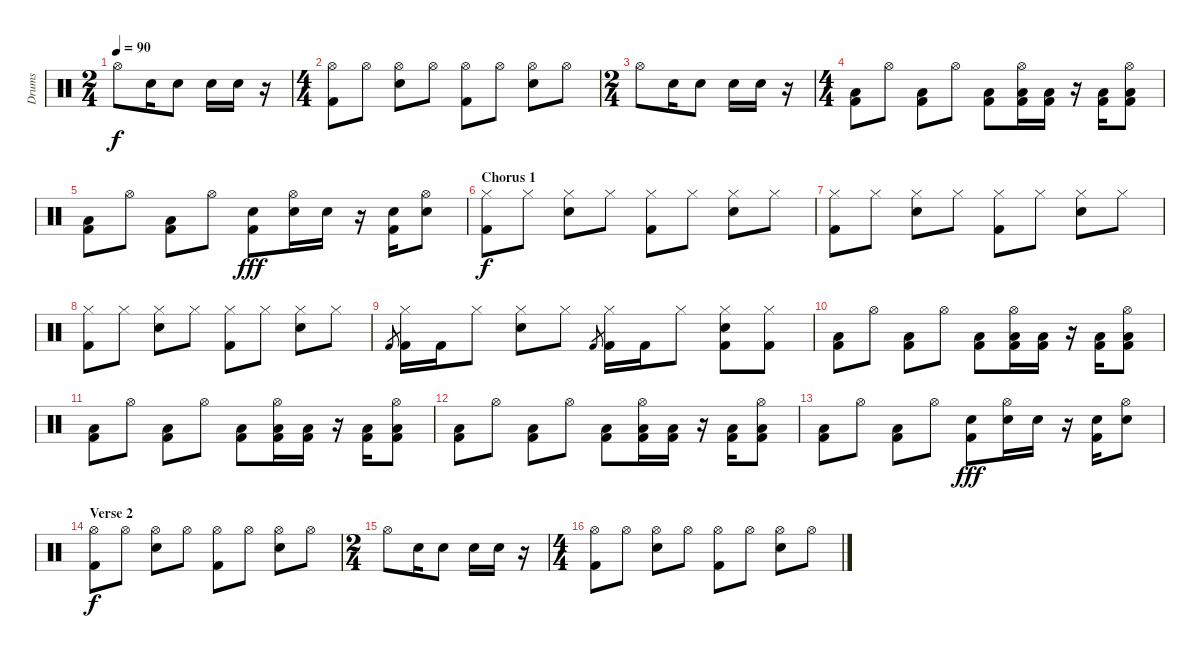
\track ("Drums" "Drums") {instrument percussion}
\staff {score}
\articulation defaults
\ts (2 4)
\tempo 90
\clef neutral
\ks c "Hi-Hat (open)".8{dy f} "Electric Snare (hit)".16 "Electric Snare (hit)".8 "Electric Snare (hit)".16 "Electric Snare (hit)".16
r.16 |
\ts (4 4)
("Hi-Hat (open)" "Kick (hit) 2").8 "Hi-Hat (open)".8 ("Hi-Hat (open)" "Electric Snare (hit)").8 "Hi-Hat (open)".8 ("Hi-Hat (open)" "Kick (hit) 2").8 "Hi-Hat (open)".8 ("Hi-Hat (open)" "Electric Snare (hit)").8 "Hi-Hat (open)".8 |
\ts (2 4)
"Hi-Hat (open)".8 "Electric Snare (hit)".16 "Electric Snare (hit)".8 "Electric Snare (hit)".16 "Electric Snare (hit)".16 r.16 |
\ts (4 4)
("Low Floor Tom (hit)" "Kick (hit) 2").8 "Hi-Hat (open)".8 ("Low Floor Tom (hit)" "Kick (hit) 2").8 "Hi-Hat (open)".8 ("Low Floor Tom (hit)" "Kick (hit) 2").8 ("Hi-Hat (open)" "Low Floor Tom (hit)" "Kick (hit) 2").16 ("Low Floor Tom (hit)" "Kick (hit) 2").16 r.16 ("Low Floor Tom (hit)" "Kick (hit) 2").16 ("Hi-Hat (open)" "Low Floor Tom (hit)" "Kick (hit) 2").8 |
("Low Floor Tom (hit)" "Kick (hit) 2").8 "Hi-Hat (open)".8 ("Low Floor Tom (hit)" "Kick (hit) 2").8 "Hi-Hat (open)".8 ("Electric Snare (hit)" "Kick (hit) 2").8{dy fff} ("Hi-Hat (open)" "Electric Snare (hit)").16 "Electric Snare (hit)".16 r.16 ("Electric Snare (hit)" "Kick (hit) 2").16 ("Hi-Hat (open)" "Electric Snare (hit)").8 |
\section ("" "Chorus 1")
("Hi-Hat (closed)" "Kick (hit) 2").8{dy f} "Hi-Hat (closed)".8 ("Hi-Hat (closed)" "Electric Snare (hit)").8 "Hi-Hat (closed)".8 ("Hi-Hat (closed)" "Kick (hit) 2").8 "Hi-Hat (closed)".8 ("Hi-Hat (closed)" "Electric Snare (hit)").8 "Hi-Hat (closed)".8 |
("Hi-Hat (closed)" "Kick (hit) 2").8 "Hi-Hat (closed)".8 ("Hi-Hat (closed)" "Electric Snare (hit)").8 "Hi-Hat (closed)".8 ("Hi-Hat (closed)" "Kick (hit) 2").8 "Hi-Hat (closed)".8 ("Hi-Hat (closed)" "Electric Snare (hit)").8 "Hi-Hat (closed)".8 |
("Hi-Hat (closed)" "Kick (hit) 2").8 "Hi-Hat (closed)".8 ("Hi-Hat (closed)" "Electric Snare (hit)").8 "Hi-Hat (closed)".8 ("Hi-Hat (closed)" "Kick (hit) 2").8 "Hi-Hat (closed)".8 ("Hi-Hat (closed)" "Electric Snare (hit)").8 "Hi-Hat (closed)".8 |
"Kick (hit) 2".8{gr} ("Hi-Hat (closed)" "Kick (hit) 2").16 "Kick (hit) 2".16 "Hi-Hat (closed)".8 ("Hi-Hat (closed)" "Electric Snare (hit)").8 "Hi-Hat (closed)".8 "Kick (hit) 2".8{gr} ("Hi-Hat (closed)" "Kick (hit) 2").16 "Kick (hit) 2".16 "Hi-Hat (closed)".8 ("Hi-Hat (closed)" "Electric Snare (hit)" "Kick (hit) 2").8 ("Hi-Hat (closed)" "Kick (hit) 2").8 |
("Low Floor Tom (hit)" "Kick (hit) 2").8 "Hi-Hat (open)".8 ("Low Floor Tom (hit)" "Kick (hit) 2").8 "Hi-Hat (open)".8 ("Low Floor Tom (hit)" "Kick (hit) 2").8 ("Hi-Hat (open)" "Low Floor Tom (hit)" "Kick (hit) 2").16 ("Low Floor Tom (hit)" "Kick (hit) 2").16 r.16 ("Low Floor Tom (hit)" "Kick (hit) 2").16 ("Hi-Hat (open)" "Low Floor Tom (hit)" "Kick (hit) 2").8 |
("Low Floor Tom (hit)" "Kick (hit) 2").8 "Hi-Hat (open)".8 ("Low Floor Tom (hit)" "Kick (hit) 2").8 "Hi-Hat (open)".8 ("Low Floor Tom (hit)" "Kick (hit) 2").8 ("Hi-Hat (open)" "Low Floor Tom (hit)" "Kick (hit) 2").16 ("Low Floor Tom (hit)" "Kick (hit) 2").16 r.16 ("Low Floor Tom (hit)" "Kick (hit) 2").16 ("Hi-Hat (open)" "Low Floor Tom (hit)" "Kick (hit) 2").8 |
("Low Floor Tom (hit)" "Kick (hit) 2").8 "Hi-Hat (open)".8 ("Low Floor Tom (hit)" "Kick (hit) 2").8 "Hi-Hat (open)".8 ("Low Floor Tom (hit)" "Kick (hit) 2").8 ("Hi-Hat (open)" "Low Floor Tom (hit)" "Kick (hit) 2").16 ("Low Floor Tom (hit)" "Kick (hit) 2").16 r.16 ("Low Floor Tom (hit)" "Kick (hit) 2").16 ("Hi-Hat (open)" "Low Floor Tom (hit)" "Kick (hit) 2").8 |
("Low Floor Tom (hit)" "Kick (hit) 2").8 "Hi-Hat (open)".8 ("Low Floor Tom (hit)" "Kick (hit) 2").8 "Hi-Hat (open)".8 ("Electric Snare (hit)" "Kick (hit) 2").8{dy fff} ("Hi-Hat (open)" "Electric Snare (hit)").16 "Electric Snare (hit)".16 r.16 ("Electric Snare (hit)" "Kick (hit) 2").16 ("Hi-Hat (open)" "Electric Snare (hit)").8 |
\section ("" "Verse 2")
("Hi-Hat (open)" "Kick (hit) 2").8{dy f} "Hi-Hat (open)".8 ("Hi-Hat (open)" "Electric Snare (hit)").8 "Hi-Hat (open)".8 ("Hi-Hat (open)" "Kick (hit) 2").8 "Hi-Hat (open)".8 ("Hi-Hat (open)" "Electric Snare (hit)").8 "Hi-Hat (open)".8 |
\ts (2 4)
"Hi-Hat (open)".8 "Electric Snare (hit)".16 "Electric Snare (hit)".8 "Electric Snare (hit)".16 "Electric Snare (hit)".16 r.16 |
\ts (4 4)
("Hi-Hat (open)" "Kick (hit) 2").8 "Hi-Hat (open)".8 ("Hi-Hat (open)" "Electric Snare (hit)").8 "Hi-Hat (open)".8 ("Hi-Hat (open)" "Kick (hit) 2").8 "Hi-Hat (open)".8 ("Hi-Hat (open)" "Electric Snare (hit)").8 "Hi-Hat (open)".8
